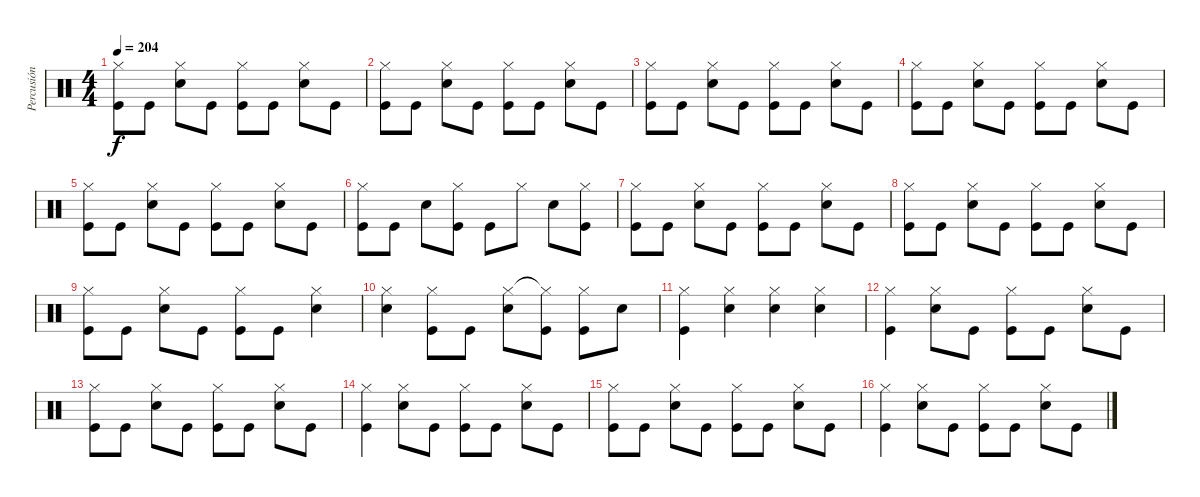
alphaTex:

\track ("Percusión" "Percusión") {instrument percussion}
\staff {score}
\articulation defaults
\ts (4 4)
\tempo 204
\clef neutral
\ks c
("Hi-Hat (closed)" "Kick (hit)").8{dy f} "Kick (hit)".8 ("Hi-Hat (closed)" "Snare (hit) 2").8 "Kick (hit)".8 ("Hi-Hat (closed)" "Kick (hit)").8 "Kick (hit)".8 ("Hi-Hat (closed)" "Snare (hit) 2").8 "Kick (hit)".8 |
("Hi-Hat (closed)" "Kick (hit)").8 "Kick (hit)".8 ("Hi-Hat (closed)" "Snare (hit) 2").8 "Kick (hit)".8 ("Hi-Hat (closed)" "Kick (hit)").8 "Kick (hit)".8 ("Hi-Hat (closed)" "Snare (hit) 2").8 "Kick (hit)".8 |
("Hi-Hat (closed)" "Kick (hit)").8 "Kick (hit)".8 ("Hi-Hat (closed)" "Snare (hit) 2").8 "Kick (hit)".8 ("Hi-Hat (closed)" "Kick (hit)").8 "Kick (hit)".8 ("Hi-Hat (closed)" "Snare (hit) 2").8 "Kick (hit)".8 |
("Hi-Hat (closed)" "Kick (hit)").8 "Kick (hit)".8 ("Hi-Hat (closed)" "Snare (hit) 2").8 "Kick (hit)".8 ("Hi-Hat (closed)" "Kick (hit)").8 "Kick (hit)".8 ("Hi-Hat (closed)" "Snare (hit) 2").8 "Kick (hit)".8 |
("Hi-Hat (closed)" "Kick (hit)").8 "Kick (hit)".8 ("Hi-Hat (closed)" "Snare (hit) 2").8 "Kick (hit)".8 ("Hi-Hat (closed)" "Kick (hit)").8 "Kick (hit)".8 ("Hi-Hat (closed)" "Snare (hit) 2").8 "Kick (hit)".8 |
("Hi-Hat (closed)" "Kick (hit)").8 "Kick (hit)".8 "Snare (hit) 2".8 ("Hi-Hat (closed)" "Kick (hit)").8 "Kick (hit)".8 "Hi-Hat (closed)".8 "Snare (hit) 2".8 ("Hi-Hat (closed)" "Kick (hit)").8 |
("Hi-Hat (closed)" "Kick (hit)").8 "Kick (hit)".8 ("Hi-Hat (closed)" "Snare (hit) 2").8 "Kick (hit)".8 ("Hi-Hat (closed)" "Kick (hit)").8 "Kick (hit)".8 ("Hi-Hat (closed)" "Snare (hit) 2").8 "Kick (hit)".8 |
("Hi-Hat (closed)" "Kick (hit)").8 "Kick (hit)".8 ("Hi-Hat (closed)" "Snare (hit) 2").8 "Kick (hit)".8 ("Hi-Hat (closed)" "Kick (hit)").8 "Kick (hit)".8 ("Hi-Hat (closed)" "Snare (hit) 2").8 "Kick (hit)".8 |
("Hi-Hat (closed)" "Kick (hit)").8 "Kick (hit)".8 ("Hi-Hat (closed)" "Snare (hit) 2").8 "Kick (hit)".8 ("Hi-Hat (closed)" "Kick (hit)").8 "Kick (hit)".8 ("Hi-Hat (closed)" "Snare (hit) 2").4 |
("Hi-Hat (closed)" "Snare (hit) 2").4 ("Hi-Hat (closed)" "Kick (hit)").8 "Kick (hit)".8 ("Hi-Hat (closed)" "Snare (hit) 2").8 ("Hi-Hat (closed)"{t} "Kick (hit)").8 ("Hi-Hat (closed)" "Kick (hit)").8 "Snare (hit) 2".8 |
("Hi-Hat (closed)" "Kick (hit)").4 ("Hi-Hat (closed)" "Snare (hit) 2").4 ("Hi-Hat (closed)" "Snare (hit) 2").4 ("Hi-Hat (closed)" "Snare (hit) 2").4 |
("Hi-Hat (closed)" "Kick (hit)").4 ("Hi-Hat (closed)" "Snare (hit) 2").8 "Kick (hit)".8 ("Hi-Hat (closed)" "Kick (hit)").8 "Kick (hit)".8 ("Hi-Hat (closed)" "Snare (hit) 2").8 "Kick (hit)".8 |
("Hi-Hat (closed)" "Kick (hit)").8 "Kick (hit)".8 ("Hi-Hat (closed)" "Snare (hit) 2").8 "Kick (hit)".8 ("Hi-Hat (closed)" "Kick (hit)").8 "Kick (hit)".8 ("Hi-Hat (closed)" "Snare (hit) 2").8 "Kick (hit)".8 |
("Hi-Hat (closed)" "Kick (hit)").4 ("Hi-Hat (closed)" "Snare (hit) 2").8 "Kick (hit)".8 ("Hi-Hat (closed)" "Kick (hit)").8 "Kick (hit)".8 ("Hi-Hat (closed)" "Snare (hit) 2").8 "Kick (hit)".8 |
("Hi-Hat (closed)" "Kick (hit)").8 "Kick (hit)".8 ("Hi-Hat (closed)" "Snare (hit) 2").8 "Kick (hit)".8 ("Hi-Hat (closed)" "Kick (hit)").8 "Kick (hit)".8 ("Hi-Hat (closed)" "Snare (hit) 2").8 "Kick (hit)".8 |
("Hi-Hat (closed)" "Kick (hit)").4 ("Hi-Hat (closed)" "Snare (hit) 2").8 "Kick (hit)".8 ("Hi-Hat (closed)" "Kick (hit)").8 "Kick (hit)".8 ("Hi-Hat (closed)" "Snare (hit) 2").8 "Kick (hit)".8
